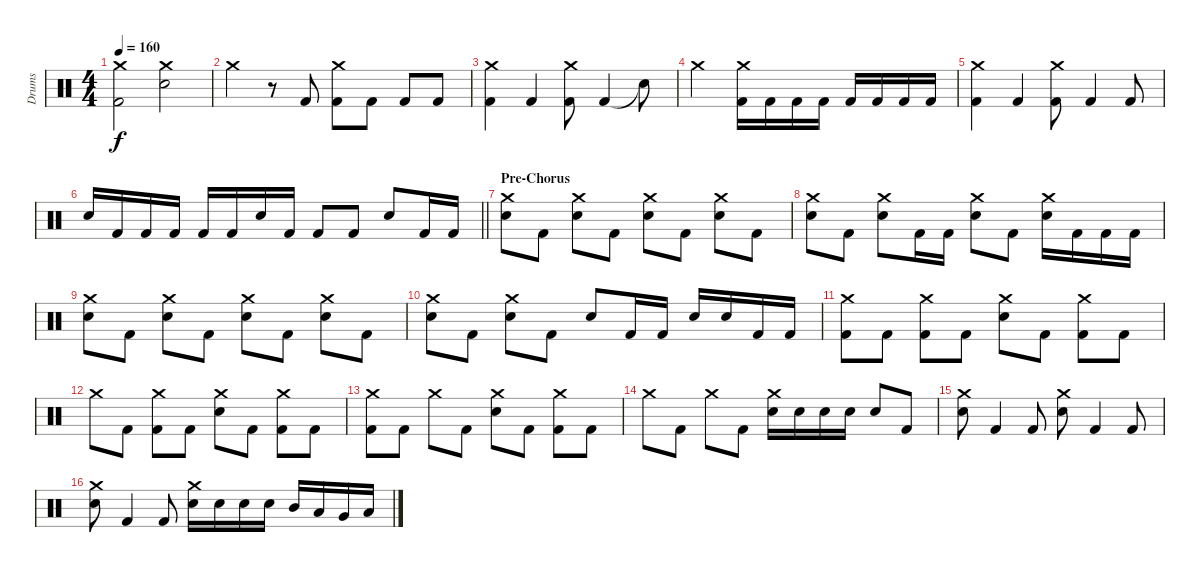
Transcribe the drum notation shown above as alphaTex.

\track ("Drums" "Drums") {instrument percussion}
\staff {score}
\articulation defaults
\ts (4 4)
\tempo 160
\clef neutral
\ks c
("Crash medium (hit)" "Kick (hit) 2").2{dy f} ("Crash medium (hit)" "Snare (hit) 2").2 |
"Crash medium (hit)".4 r.8 "Kick (hit) 2".8 ("Crash medium (hit)" "Kick (hit) 2").8 "Kick (hit) 2".8 "Kick (hit) 2".8 "Kick (hit) 2".8 |
("Crash medium (hit)" "Kick (hit) 2").4 "Kick (hit) 2".4 ("Crash medium (hit)" "Kick (hit) 2").8 "Kick (hit) 2".4 "Snare (hit)"{t}.8 |
"Crash medium (hit)".2 ("Crash medium (hit)" "Kick (hit) 2").16 "Kick (hit) 2".16 "Kick (hit) 2".16 "Kick (hit) 2".16 "Kick (hit) 2".16 "Kick (hit) 2".16 "Kick (hit) 2".16 "Kick (hit) 2".16 |
("Crash medium (hit)" "Kick (hit) 2").4 "Kick (hit) 2".4 ("Crash medium (hit)" "Kick (hit) 2").8 "Kick (hit) 2".4 "Kick (hit) 2".8 |
\barLineRight lightlight "Snare (hit) 2".16 "Kick (hit) 2".16 "Kick (hit) 2".16 "Kick (hit) 2".16 "Kick (hit) 2".16 "Kick (hit) 2".16 "Snare (hit) 2".16 "Kick (hit) 2".16 "Kick (hit) 2".8 "Kick (hit) 2".8 "Snare (hit) 2".8 "Kick (hit) 2".16 "Kick (hit) 2".16
|
\section ("" "Pre-Chorus")
("Crash medium (hit)" "Snare (hit) 2").8 "Kick (hit) 2".8 ("Crash medium (hit)" "Snare (hit) 2").8 "Kick (hit) 2".8 ("Crash medium (hit)" "Snare (hit) 2").8 "Kick (hit) 2".8 ("Crash medium (hit)" "Snare (hit) 2").8 "Kick (hit) 2".8 |
("Crash medium (hit)" "Snare (hit) 2").8 "Kick (hit) 2".8 ("Crash medium (hit)" "Snare (hit) 2").8 "Kick (hit) 2".16 "Kick (hit) 2".16 ("Crash medium (hit)" "Snare (hit) 2").8 "Kick (hit) 2".8 ("Crash medium (hit)" "Snare (hit) 2").16 "Kick (hit) 2".16 "Kick (hit) 2".16 "Kick (hit) 2".16 |
("Crash medium (hit)" "Snare (hit) 2").8 "Kick (hit) 2".8 ("Crash medium (hit)" "Snare (hit) 2").8 "Kick (hit) 2".8 ("Crash medium (hit)" "Snare (hit) 2").8 "Kick (hit) 2".8 ("Crash medium (hit)" "Snare (hit) 2").8 "Kick (hit) 2".8 |
("Crash medium (hit)" "Snare (hit) 2").8 "Kick (hit) 2".8 ("Crash medium (hit)" "Snare (hit) 2").8 "Kick (hit) 2".8 "Snare (hit) 2".8 "Kick (hit) 2".16 "Kick (hit) 2".16 "Snare (hit) 2".16 "Snare (hit) 2".16 "Kick (hit) 2".16 "Kick (hit) 2".16 |
("Crash medium (hit)" "Kick (hit) 2").8 "Kick (hit) 2".8 ("Crash medium (hit)" "Kick (hit) 2").8 "Kick (hit) 2".8 ("Crash medium (hit)" "Snare (hit) 2").8 "Kick (hit) 2".8 ("Crash medium (hit)" "Kick (hit) 2").8 "Kick (hit) 2".8 |
"Crash medium (hit)".8 "Kick (hit) 2".8 ("Crash medium (hit)" "Kick (hit) 2").8 "Kick (hit) 2".8 ("Crash medium (hit)" "Snare (hit) 2").8 "Kick (hit) 2".8 ("Crash medium (hit)" "Kick (hit) 2").8 "Kick (hit) 2".8 |
("Crash medium (hit)" "Kick (hit) 2").8 "Kick (hit) 2".8 "Crash medium (hit)".8 "Kick (hit) 2".8 ("Crash medium (hit)" "Snare (hit) 2").8 "Kick (hit) 2".8 ("Crash medium (hit)" "Kick (hit) 2").8 "Kick (hit) 2".8 |
"Crash medium (hit)".8 "Kick (hit) 2".8 "Crash medium (hit)".8 "Kick (hit) 2".8 ("Crash medium (hit)" "Snare (hit) 2").16 "Snare (hit) 2".16 "Snare (hit) 2".16 "Snare (hit) 2".16 "Snare (hit) 2".8 "Kick (hit) 2".8 |
("Crash medium (hit)" "Snare (hit) 2").8 "Kick (hit) 2".4 "Kick (hit) 2".8 ("Crash medium (hit)" "Snare (hit) 2").8 "Kick (hit) 2".4 "Kick (hit) 2".8 |
("Crash medium (hit)" "Snare (hit) 2").8 "Kick (hit) 2".4 "Kick (hit) 2".8 ("Crash medium (hit)" "Snare (hit) 2").16 "Snare (hit) 2".16 "Snare (hit) 2".16 "Snare (hit) 2".16 "Mid Tom (hit)".16 "Low Tom (hit)".16 "Very Low Tom (hit)".16 "Low Floor Tom (hit)".16
